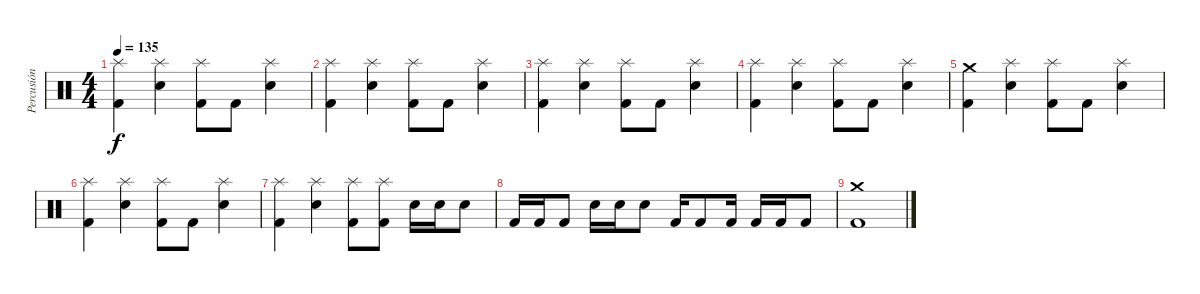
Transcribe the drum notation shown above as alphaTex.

\track ("Percusión" "Percusión") {instrument percussion}
\staff {score}
\articulation defaults
\ts (4 4)
\tempo 135
\clef neutral
\ks c
("Kick (hit) 2" "Splash (hit)").4{dy f} ("Snare (hit) 2" "Splash (hit)").4 ("Kick (hit) 2" "Splash (hit)").8 "Kick (hit) 2".8 ("Snare (hit) 2" "Splash (hit)").4 |
("Kick (hit) 2" "Splash (hit)").4 ("Snare (hit) 2" "Splash (hit)").4 ("Kick (hit) 2" "Splash (hit)").8 "Kick (hit) 2".8 ("Snare (hit) 2" "Splash (hit)").4 |
("Kick (hit) 2" "Splash (hit)").4 ("Snare (hit) 2" "Splash (hit)").4 ("Kick (hit) 2" "Splash (hit)").8 "Kick (hit) 2".8 ("Snare (hit) 2" "Splash (hit)").4 |
("Kick (hit) 2" "Splash (hit)").4 ("Snare (hit) 2" "Splash (hit)").4 ("Kick (hit) 2" "Splash (hit)").8 "Kick (hit) 2".8 ("Snare (hit) 2" "Splash (hit)").4 |
("Kick (hit) 2" "Crash medium (hit)").4 ("Snare (hit) 2" "Splash (hit)").4 ("Kick (hit) 2" "Splash (hit)").8 "Kick (hit) 2".8 ("Snare (hit) 2" "Splash (hit)").4 |
("Kick (hit) 2" "Splash (hit)").4 ("Snare (hit) 2" "Splash (hit)").4 ("Kick (hit) 2" "Splash (hit)").8 "Kick (hit) 2".8 ("Snare (hit) 2" "Splash (hit)").4 |
("Kick (hit) 2" "Splash (hit)").4 ("Snare (hit) 2" "Splash (hit)").4 ("Kick (hit) 2" "Splash (hit)").8 ("Kick (hit) 2" "Splash (hit)").8 "Snare (hit) 2".16 "Snare (hit) 2".16 "Snare (hit) 2".8 |
"Kick (hit) 2".16 "Kick (hit) 2".16 "Kick (hit) 2".8 "Snare (hit) 2".16 "Snare (hit) 2".16 "Snare (hit) 2".8 "Kick (hit) 2".16 "Kick (hit) 2".8 "Kick (hit) 2".16 "Kick (hit) 2".16 "Kick (hit) 2".16 "Kick (hit) 2".8 |
("Kick (hit) 2" "Crash medium (hit)").1
